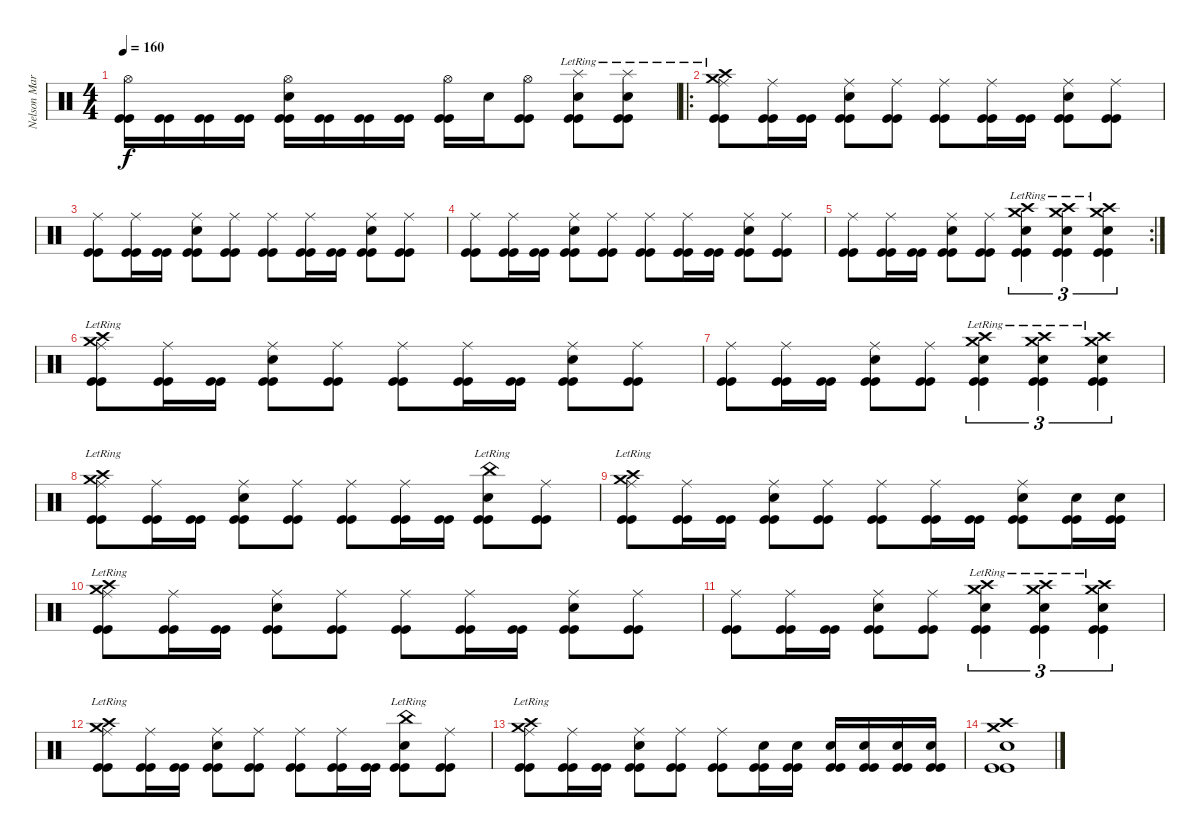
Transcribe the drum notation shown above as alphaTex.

\track ("Nelson Maria" "Nelson Mar") {instrument percussion}
\staff {score}
\articulation defaults
\ts (4 4)
\tempo 160
\clef neutral
\ks c
("Hi-Hat (open)" "Kick (hit)" "Kick (hit)").16{dy f} ("Kick (hit)" "Kick (hit)").16 ("Kick (hit)" "Kick (hit)").16 ("Kick (hit)" "Kick (hit)").16 ("Snare (hit) 2" "Hi-Hat (open)" "Kick (hit)" "Kick (hit)").16 ("Kick (hit)" "Kick (hit)").16 ("Kick (hit)" "Kick (hit)").16 ("Kick (hit)" "Kick (hit)").16 ("Hi-Hat (open)" "Kick (hit)" "Kick (hit)").16 "Snare (hit) 2".16 ("Hi-Hat (open)" "Kick (hit)" "Kick (hit)").8 ("Splash (hit)"{lr} "Snare (hit) 2" "Kick (hit)" "Kick (hit)").8 ("Splash (hit)"{lr} "Snare (hit) 2" "Kick (hit)" "Kick (hit)").8 |
\ro
("Crash high (hit)"{lr} "Crash medium (hit)"{lr} "Ride (middle)" "Kick (hit)" "Kick (hit)").8 ("Ride (middle)" "Kick (hit)" "Kick (hit)").16 ("Kick (hit)" "Kick (hit)").16 ("Snare (hit) 2" "Ride (middle)" "Kick (hit)" "Kick (hit)").8 ("Ride (middle)" "Kick (hit)" "Kick (hit)").8 ("Ride (middle)" "Kick (hit)" "Kick (hit)").8 ("Ride (middle)" "Kick (hit)" "Kick (hit)").16 ("Kick (hit)" "Kick (hit)").16 ("Snare (hit) 2" "Ride (middle)" "Kick (hit)" "Kick (hit)").8 ("Ride (middle)" "Kick (hit)" "Kick (hit)").8 |
("Ride (middle)" "Kick (hit)" "Kick (hit)").8 ("Ride (middle)" "Kick (hit)" "Kick (hit)").16 ("Kick (hit)" "Kick (hit)").16 ("Snare (hit) 2" "Ride (middle)" "Kick (hit)" "Kick (hit)").8 ("Ride (middle)" "Kick (hit)" "Kick (hit)").8 ("Ride (middle)" "Kick (hit)" "Kick (hit)").8 ("Ride (middle)" "Kick (hit)" "Kick (hit)").16 ("Kick (hit)" "Kick (hit)").16 ("Snare (hit) 2" "Ride (middle)" "Kick (hit)" "Kick (hit)").8 ("Ride (middle)" "Kick (hit)" "Kick (hit)").8 |
("Ride (middle)" "Kick (hit)" "Kick (hit)").8 ("Ride (middle)" "Kick (hit)" "Kick (hit)").16 ("Kick (hit)" "Kick (hit)").16 ("Snare (hit) 2" "Ride (middle)" "Kick (hit)" "Kick (hit)").8 ("Ride (middle)" "Kick (hit)" "Kick (hit)").8 ("Ride (middle)" "Kick (hit)" "Kick (hit)").8 ("Ride (middle)" "Kick (hit)" "Kick (hit)").16 ("Kick (hit)" "Kick (hit)").16 ("Snare (hit) 2" "Ride (middle)" "Kick (hit)" "Kick (hit)").8 ("Ride (middle)" "Kick (hit)" "Kick (hit)").8 |
\rc 2
("Ride (middle)" "Kick (hit)" "Kick (hit)").8 ("Ride (middle)" "Kick (hit)" "Kick (hit)").16 ("Kick (hit)" "Kick (hit)").16 ("Snare (hit) 2" "Ride (middle)" "Kick (hit)" "Kick (hit)").8 ("Ride (middle)" "Kick (hit)" "Kick (hit)").8 ("Crash high (hit)"{lr} "Crash medium (hit)"{lr} "Snare (hit) 2" "Kick (hit)" "Kick (hit)").4{tu (3 2)} ("Crash high (hit)"{lr} "Crash medium (hit)"{lr} "Snare (hit) 2" "Kick (hit)" "Kick (hit)").4{tu (3 2)} ("Crash high (hit)"{lr} "Crash medium (hit)"{lr} "Snare (hit) 2" "Kick (hit)" "Kick (hit)").4{tu (3 2)} |
("Crash high (hit)"{lr} "Crash medium (hit)"{lr} "Ride (middle)" "Kick (hit)" "Kick (hit)").8 ("Ride (middle)" "Kick (hit)" "Kick (hit)").16 ("Kick (hit)" "Kick (hit)").16 ("Snare (hit) 2" "Ride (middle)" "Kick (hit)" "Kick (hit)").8 ("Ride (middle)" "Kick (hit)" "Kick (hit)").8 ("Ride (middle)" "Kick (hit)" "Kick (hit)").8 ("Ride (middle)" "Kick (hit)" "Kick (hit)").16 ("Kick (hit)" "Kick (hit)").16 ("Snare (hit) 2" "Ride (middle)" "Kick (hit)" "Kick (hit)").8 ("Ride (middle)" "Kick (hit)" "Kick (hit)").8 |
("Ride (middle)" "Kick (hit)" "Kick (hit)").8 ("Ride (middle)" "Kick (hit)" "Kick (hit)").16 ("Kick (hit)" "Kick (hit)").16 ("Snare (hit) 2" "Ride (middle)" "Kick (hit)" "Kick (hit)").8 ("Ride (middle)" "Kick (hit)" "Kick (hit)").8 ("Crash high (hit)"{lr} "Crash medium (hit)"{lr} "Snare (hit) 2" "Kick (hit)" "Kick (hit)").4{tu (3 2)} ("Crash high (hit)"{lr} "Crash medium (hit)"{lr} "Snare (hit) 2" "Kick (hit)" "Kick (hit)").4{tu (3 2)} ("Crash high (hit)"{lr} "Crash medium (hit)"{lr} "Snare (hit) 2" "Kick (hit)" "Kick (hit)").4{tu (3 2)} |
("Crash high (hit)"{lr} "Crash medium (hit)"{lr} "Ride (middle)" "Kick (hit)" "Kick (hit)").8 ("Ride (middle)" "Kick (hit)" "Kick (hit)").16 ("Kick (hit)" "Kick (hit)").16 ("Snare (hit) 2" "Ride (middle)" "Kick (hit)" "Kick (hit)").8 ("Ride (middle)" "Kick (hit)" "Kick (hit)").8 ("Ride (middle)" "Kick (hit)" "Kick (hit)").8 ("Ride (middle)" "Kick (hit)" "Kick (hit)").16 ("Kick (hit)" "Kick (hit)").16 ("China (hit)"{lr} "Snare (hit) 2" "Kick (hit)" "Kick (hit)").8 ("Ride (middle)" "Kick (hit)" "Kick (hit)").8 |
("Crash high (hit)"{lr} "Crash medium (hit)"{lr} "Ride (middle)" "Kick (hit)" "Kick (hit)").8 ("Ride (middle)" "Kick (hit)" "Kick (hit)").16 ("Kick (hit)" "Kick (hit)").16 ("Snare (hit) 2" "Ride (middle)" "Kick (hit)" "Kick (hit)").8 ("Ride (middle)" "Kick (hit)" "Kick (hit)").8 ("Ride (middle)" "Kick (hit)" "Kick (hit)").8 ("Ride (middle)" "Kick (hit)" "Kick (hit)").16 ("Kick (hit)" "Kick (hit)").16 ("Snare (hit) 2" "Ride (middle)" "Kick (hit)" "Kick (hit)").8 ("Snare (hit) 2" "Kick (hit)" "Kick (hit)").16 ("Snare (hit) 2" "Kick (hit)" "Kick (hit)").16 |
("Crash high (hit)"{lr} "Crash medium (hit)"{lr} "Ride (middle)" "Kick (hit)" "Kick (hit)").8 ("Ride (middle)" "Kick (hit)" "Kick (hit)").16 ("Kick (hit)" "Kick (hit)").16 ("Snare (hit) 2" "Ride (middle)" "Kick (hit)" "Kick (hit)").8 ("Ride (middle)" "Kick (hit)" "Kick (hit)").8 ("Ride (middle)" "Kick (hit)" "Kick (hit)").8 ("Ride (middle)" "Kick (hit)" "Kick (hit)").16 ("Kick (hit)" "Kick (hit)").16 ("Snare (hit) 2" "Ride (middle)" "Kick (hit)" "Kick (hit)").8 ("Ride (middle)" "Kick (hit)" "Kick (hit)").8 |
("Ride (middle)" "Kick (hit)" "Kick (hit)").8 ("Ride (middle)" "Kick (hit)" "Kick (hit)").16 ("Kick (hit)" "Kick (hit)").16 ("Snare (hit) 2" "Ride (middle)" "Kick (hit)" "Kick (hit)").8 ("Ride (middle)" "Kick (hit)" "Kick (hit)").8 ("Crash high (hit)"{lr} "Crash medium (hit)"{lr} "Snare (hit) 2" "Kick (hit)" "Kick (hit)").4{tu (3 2)} ("Crash high (hit)"{lr} "Crash medium (hit)"{lr} "Snare (hit) 2" "Kick (hit)" "Kick (hit)").4{tu (3 2)} ("Crash high (hit)"{lr} "Crash medium (hit)"{lr} "Snare (hit) 2" "Kick (hit)" "Kick (hit)").4{tu (3 2)} |
("Crash high (hit)"{lr} "Crash medium (hit)"{lr} "Ride (middle)" "Kick (hit)" "Kick (hit)").8 ("Ride (middle)" "Kick (hit)" "Kick (hit)").16 ("Kick (hit)" "Kick (hit)").16 ("Snare (hit) 2" "Ride (middle)" "Kick (hit)" "Kick (hit)").8 ("Ride (middle)" "Kick (hit)" "Kick (hit)").8 ("Ride (middle)" "Kick (hit)" "Kick (hit)").8 ("Ride (middle)" "Kick (hit)" "Kick (hit)").16 ("Kick (hit)" "Kick (hit)").16 ("China (hit)"{lr} "Snare (hit) 2" "Kick (hit)" "Kick (hit)").8 ("Ride (middle)" "Kick (hit)" "Kick (hit)").8 |
("Crash high (hit)"{lr} "Crash medium (hit)"{lr} "Ride (middle)" "Kick (hit)" "Kick (hit)").8 ("Ride (middle)" "Kick (hit)" "Kick (hit)").16 ("Kick (hit)" "Kick (hit)").16 ("Snare (hit) 2" "Ride (middle)" "Kick (hit)" "Kick (hit)").8 ("Ride (middle)" "Kick (hit)" "Kick (hit)").8 ("Ride (middle)" "Kick (hit)" "Kick (hit)").8 ("Snare (hit) 2" "Kick (hit)" "Kick (hit)").16 ("Snare (hit) 2" "Kick (hit)" "Kick (hit)").16 ("Snare (hit) 2" "Kick (hit)" "Kick (hit)").16 ("Snare (hit) 2" "Kick (hit)" "Kick (hit)").16 ("Snare (hit) 2" "Kick (hit)" "Kick (hit)").16 ("Snare (hit) 2" "Kick (hit)" "Kick (hit)").16 |
("Crash high (hit)" "Crash medium (hit)" "Snare (hit) 2" "Kick (hit)" "Kick (hit)").1
